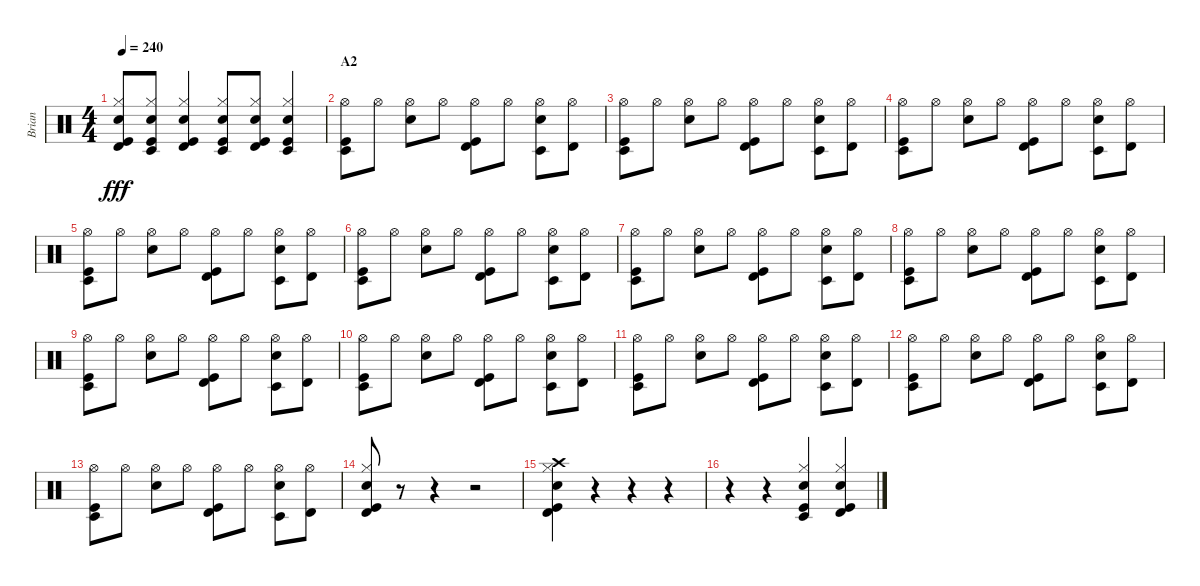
\track ("Brian" "Brian") {instrument percussion}
\staff {score}
\articulation defaults
\ts (4 4)
\tempo 240
\clef neutral
\ks c
("Timbale high (hit)" "Hi-Hat (closed)" "Snare (hit) 2" "Kick (hit)").8{dy fff} ("Timbale low (hit)" "Hi-Hat (closed)" "Snare (hit) 2" "Kick (hit)").8 ("Timbale high (hit)" "Hi-Hat (closed)" "Snare (hit) 2" "Kick (hit)").4 ("Timbale low (hit)" "Hi-Hat (closed)" "Snare (hit) 2" "Kick (hit)").8 ("Timbale high (hit)" "Hi-Hat (closed)" "Snare (hit) 2" "Kick (hit)").8 ("Timbale low (hit)" "Hi-Hat (closed)" "Snare (hit) 2" "Kick (hit)").4 |
\section ("" "A2")
("Timbale low (hit)" "Hi-Hat (open)" "Kick (hit)").8 "Hi-Hat (open)".8 ("Hi-Hat (open)" "Snare (hit) 2").8 "Hi-Hat (open)".8 ("Timbale high (hit)" "Hi-Hat (open)" "Kick (hit)").8 "Hi-Hat (open)".8 ("Timbale low (hit)" "Hi-Hat (open)" "Snare (hit) 2").8 ("Timbale high (hit)" "Hi-Hat (open)").8 |
("Timbale low (hit)" "Hi-Hat (open)" "Kick (hit)").8 "Hi-Hat (open)".8 ("Hi-Hat (open)" "Snare (hit) 2").8 "Hi-Hat (open)".8 ("Timbale high (hit)" "Hi-Hat (open)" "Kick (hit)").8 "Hi-Hat (open)".8 ("Timbale low (hit)" "Hi-Hat (open)" "Snare (hit) 2").8 ("Timbale high (hit)" "Hi-Hat (open)").8 |
("Timbale low (hit)" "Hi-Hat (open)" "Kick (hit)").8 "Hi-Hat (open)".8 ("Hi-Hat (open)" "Snare (hit) 2").8 "Hi-Hat (open)".8 ("Timbale high (hit)" "Hi-Hat (open)" "Kick (hit)").8 "Hi-Hat (open)".8 ("Timbale low (hit)" "Hi-Hat (open)" "Snare (hit) 2").8 ("Timbale high (hit)" "Hi-Hat (open)").8 |
("Timbale low (hit)" "Hi-Hat (open)" "Kick (hit)").8 "Hi-Hat (open)".8 ("Hi-Hat (open)" "Snare (hit) 2").8 "Hi-Hat (open)".8 ("Timbale high (hit)" "Hi-Hat (open)" "Kick (hit)").8 "Hi-Hat (open)".8 ("Timbale low (hit)" "Hi-Hat (open)" "Snare (hit) 2").8 ("Timbale high (hit)" "Hi-Hat (open)").8 |
("Timbale low (hit)" "Hi-Hat (open)" "Kick (hit)").8 "Hi-Hat (open)".8 ("Hi-Hat (open)" "Snare (hit) 2").8 "Hi-Hat (open)".8 ("Timbale high (hit)" "Hi-Hat (open)" "Kick (hit)").8 "Hi-Hat (open)".8 ("Timbale low (hit)" "Hi-Hat (open)" "Snare (hit) 2").8 ("Timbale high (hit)" "Hi-Hat (open)").8 |
("Timbale low (hit)" "Hi-Hat (open)" "Kick (hit)").8 "Hi-Hat (open)".8 ("Hi-Hat (open)" "Snare (hit) 2").8 "Hi-Hat (open)".8 ("Timbale high (hit)" "Hi-Hat (open)" "Kick (hit)").8 "Hi-Hat (open)".8 ("Timbale low (hit)" "Hi-Hat (open)" "Snare (hit) 2").8 ("Timbale high (hit)" "Hi-Hat (open)").8 |
("Timbale low (hit)" "Hi-Hat (open)" "Kick (hit)").8 "Hi-Hat (open)".8 ("Hi-Hat (open)" "Snare (hit) 2").8 "Hi-Hat (open)".8 ("Timbale high (hit)" "Hi-Hat (open)" "Kick (hit)").8 "Hi-Hat (open)".8 ("Timbale low (hit)" "Hi-Hat (open)" "Snare (hit) 2").8 ("Timbale high (hit)" "Hi-Hat (open)").8 |
("Timbale low (hit)" "Hi-Hat (open)" "Kick (hit)").8 "Hi-Hat (open)".8 ("Hi-Hat (open)" "Snare (hit) 2").8 "Hi-Hat (open)".8 ("Timbale high (hit)" "Hi-Hat (open)" "Kick (hit)").8 "Hi-Hat (open)".8 ("Timbale low (hit)" "Hi-Hat (open)" "Snare (hit) 2").8 ("Timbale high (hit)" "Hi-Hat (open)").8 |
("Timbale low (hit)" "Hi-Hat (open)" "Kick (hit)").8 "Hi-Hat (open)".8 ("Hi-Hat (open)" "Snare (hit) 2").8 "Hi-Hat (open)".8 ("Timbale high (hit)" "Hi-Hat (open)" "Kick (hit)").8 "Hi-Hat (open)".8 ("Timbale low (hit)" "Hi-Hat (open)" "Snare (hit) 2").8 ("Timbale high (hit)" "Hi-Hat (open)").8 |
("Timbale low (hit)" "Hi-Hat (open)" "Kick (hit)").8 "Hi-Hat (open)".8 ("Hi-Hat (open)" "Snare (hit) 2").8 "Hi-Hat (open)".8 ("Timbale high (hit)" "Hi-Hat (open)" "Kick (hit)").8 "Hi-Hat (open)".8 ("Timbale low (hit)" "Hi-Hat (open)" "Snare (hit) 2").8 ("Timbale high (hit)" "Hi-Hat (open)").8 |
("Timbale low (hit)" "Hi-Hat (open)" "Kick (hit)").8 "Hi-Hat (open)".8 ("Hi-Hat (open)" "Snare (hit) 2").8 "Hi-Hat (open)".8 ("Timbale high (hit)" "Hi-Hat (open)" "Kick (hit)").8 "Hi-Hat (open)".8 ("Timbale low (hit)" "Hi-Hat (open)" "Snare (hit) 2").8 ("Timbale high (hit)" "Hi-Hat (open)").8 |
("Timbale low (hit)" "Hi-Hat (open)" "Kick (hit)").8 "Hi-Hat (open)".8 ("Hi-Hat (open)" "Snare (hit) 2").8 "Hi-Hat (open)".8 ("Timbale high (hit)" "Hi-Hat (open)" "Kick (hit)").8 "Hi-Hat (open)".8 ("Timbale low (hit)" "Hi-Hat (open)" "Snare (hit) 2").8 ("Timbale high (hit)" "Hi-Hat (open)").8 |
("Timbale high (hit)" "Hi-Hat (closed)" "Snare (hit) 2" "Kick (hit)").8 r.8 r.4 r.2 |
("Crash high (hit)" "Hi-Hat (closed)" "Snare (hit) 2" "Timbale high (hit)" "Kick (hit)").4 r.4 r.4 r.4 |
r.4 r.4 ("Timbale low (hit)" "Hi-Hat (closed)" "Snare (hit) 2" "Kick (hit)").4 ("Timbale high (hit)" "Hi-Hat (closed)" "Snare (hit) 2" "Kick (hit)").4
